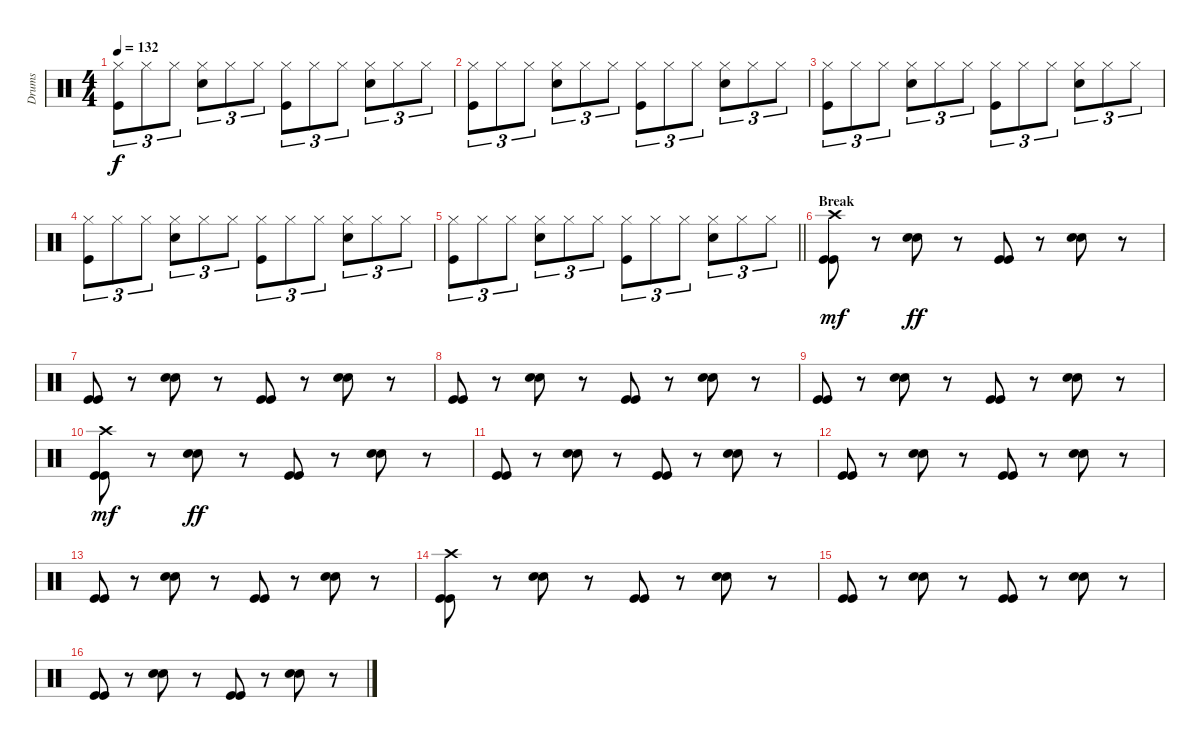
\track ("Drums" "Drums") {instrument percussion}
\staff {score}
\articulation defaults
\ts (4 4)
\tempo 132
\clef neutral
\ks c
("Hi-Hat (closed)" "Kick (hit)").8{tu (3 2) dy f} "Hi-Hat (closed)".8{tu (3 2)} "Hi-Hat (closed)".8{tu (3 2)} ("Hi-Hat (closed)" "Snare (hit) 2").8{tu (3 2)} "Hi-Hat (closed)".8{tu (3 2)} "Hi-Hat (closed)".8{tu (3 2)} ("Hi-Hat (closed)" "Kick (hit)").8{tu (3 2)} "Hi-Hat (closed)".8{tu (3 2)} "Hi-Hat (closed)".8{tu (3 2)} ("Hi-Hat (closed)" "Snare (hit) 2").8{tu (3 2)} "Hi-Hat (closed)".8{tu (3 2)} "Hi-Hat (closed)".8{tu (3 2)} |
("Hi-Hat (closed)" "Kick (hit)").8{tu (3 2)} "Hi-Hat (closed)".8{tu (3 2)} "Hi-Hat (closed)".8{tu (3 2)} ("Hi-Hat (closed)" "Snare (hit) 2").8{tu (3 2)} "Hi-Hat (closed)".8{tu (3 2)} "Hi-Hat (closed)".8{tu (3 2)} ("Hi-Hat (closed)" "Kick (hit)").8{tu (3 2)} "Hi-Hat (closed)".8{tu (3 2)} "Hi-Hat (closed)".8{tu (3 2)} ("Hi-Hat (closed)" "Snare (hit) 2").8{tu (3 2)} "Hi-Hat (closed)".8{tu (3 2)} "Hi-Hat (closed)".8{tu (3 2)} |
("Hi-Hat (closed)" "Kick (hit)").8{tu (3 2)} "Hi-Hat (closed)".8{tu (3 2)} "Hi-Hat (closed)".8{tu (3 2)} ("Hi-Hat (closed)" "Snare (hit) 2").8{tu (3 2)} "Hi-Hat (closed)".8{tu (3 2)} "Hi-Hat (closed)".8{tu (3 2)} ("Hi-Hat (closed)" "Kick (hit)").8{tu (3 2)} "Hi-Hat (closed)".8{tu (3 2)} "Hi-Hat (closed)".8{tu (3 2)} ("Hi-Hat (closed)" "Snare (hit) 2").8{tu (3 2)} "Hi-Hat (closed)".8{tu (3 2)} "Hi-Hat (closed)".8{tu (3 2)} |
("Hi-Hat (closed)" "Kick (hit)").8{tu (3 2)} "Hi-Hat (closed)".8{tu (3 2)} "Hi-Hat (closed)".8{tu (3 2)} ("Hi-Hat (closed)" "Snare (hit) 2").8{tu (3 2)} "Hi-Hat (closed)".8{tu (3 2)} "Hi-Hat (closed)".8{tu (3 2)} ("Hi-Hat (closed)" "Kick (hit)").8{tu (3 2)} "Hi-Hat (closed)".8{tu (3 2)} "Hi-Hat (closed)".8{tu (3 2)} ("Hi-Hat (closed)" "Snare (hit) 2").8{tu (3 2)} "Hi-Hat (closed)".8{tu (3 2)} "Hi-Hat (closed)".8{tu (3 2)} |
\barLineRight lightlight
("Hi-Hat (closed)" "Kick (hit)").8{tu (3 2)} "Hi-Hat (closed)".8{tu (3 2)} "Hi-Hat (closed)".8{tu (3 2)} ("Hi-Hat (closed)" "Snare (hit) 2").8{tu (3 2)} "Hi-Hat (closed)".8{tu (3 2)} "Hi-Hat (closed)".8{tu (3 2)} ("Hi-Hat (closed)" "Kick (hit)").8{tu (3 2)} "Hi-Hat (closed)".8{tu (3 2)} "Hi-Hat (closed)".8{tu (3 2)} ("Hi-Hat (closed)" "Snare (hit) 2").8{tu (3 2)} "Hi-Hat (closed)".8{tu (3 2)} "Hi-Hat (closed)".8{tu (3 2)} |
\section ("" "Break")
("Kick (hit)" "Kick (hit)" "Crash high (hit)").8{dy mf} r.8 ("Hand Clap (hit)" "Hand Clap (hit)").8{bd 240 dy ff} r.8 ("Kick (hit)" "Kick (hit)").8 r.8 ("Hand Clap (hit)" "Hand Clap (hit)").8{bd 240} r.8 |
("Kick (hit)" "Kick (hit)").8 r.8 ("Hand Clap (hit)" "Hand Clap (hit)").8{bd 240} r.8 ("Kick (hit)" "Kick (hit)").8 r.8 ("Hand Clap (hit)" "Hand Clap (hit)").8{bd 240} r.8 |
("Kick (hit)" "Kick (hit)").8 r.8 ("Hand Clap (hit)" "Hand Clap (hit)").8{bd 240} r.8 ("Kick (hit)" "Kick (hit)").8 r.8 ("Hand Clap (hit)" "Hand Clap (hit)").8{bd 240} r.8 |
("Kick (hit)" "Kick (hit)").8 r.8 ("Hand Clap (hit)" "Hand Clap (hit)").8{bd 240} r.8 ("Kick (hit)" "Kick (hit)").8 r.8 ("Hand Clap (hit)" "Hand Clap (hit)").8{bd 240} r.8 |
("Kick (hit)" "Kick (hit)" "Crash high (hit)").8{dy mf} r.8 ("Hand Clap (hit)" "Hand Clap (hit)").8{bd 240 dy ff} r.8 ("Kick (hit)" "Kick (hit)").8 r.8 ("Hand Clap (hit)" "Hand Clap (hit)").8{bd 240} r.8 |
("Kick (hit)" "Kick (hit)").8 r.8 ("Hand Clap (hit)" "Hand Clap (hit)").8{bd 240} r.8 ("Kick (hit)" "Kick (hit)").8 r.8 ("Hand Clap (hit)" "Hand Clap (hit)").8{bd 240} r.8 |
("Kick (hit)" "Kick (hit)").8 r.8 ("Hand Clap (hit)" "Hand Clap (hit)").8{bd 240} r.8 ("Kick (hit)" "Kick (hit)").8 r.8 ("Hand Clap (hit)" "Hand Clap (hit)").8{bd 240} r.8 |
("Kick (hit)" "Kick (hit)").8 r.8 ("Hand Clap (hit)" "Hand Clap (hit)").8{bd 240} r.8 ("Kick (hit)" "Kick (hit)").8 r.8 ("Hand Clap (hit)" "Hand Clap (hit)").8{bd 240} r.8 |
("Kick (hit)" "Kick (hit)" "Crash high (hit)").8 r.8 ("Hand Clap (hit)" "Hand Clap (hit)").8{bd 240} r.8 ("Kick (hit)" "Kick (hit)").8 r.8 ("Hand Clap (hit)" "Hand Clap (hit)").8{bd 240} r.8 |
("Kick (hit)" "Kick (hit)").8 r.8 ("Hand Clap (hit)" "Hand Clap (hit)").8{bd 240} r.8 ("Kick (hit)" "Kick (hit)").8 r.8 ("Hand Clap (hit)" "Hand Clap (hit)").8{bd 240} r.8 |
("Kick (hit)" "Kick (hit)").8 r.8 ("Hand Clap (hit)" "Hand Clap (hit)").8{bd 240} r.8 ("Kick (hit)" "Kick (hit)").8 r.8 ("Hand Clap (hit)" "Hand Clap (hit)").8{bd 240} r.8
